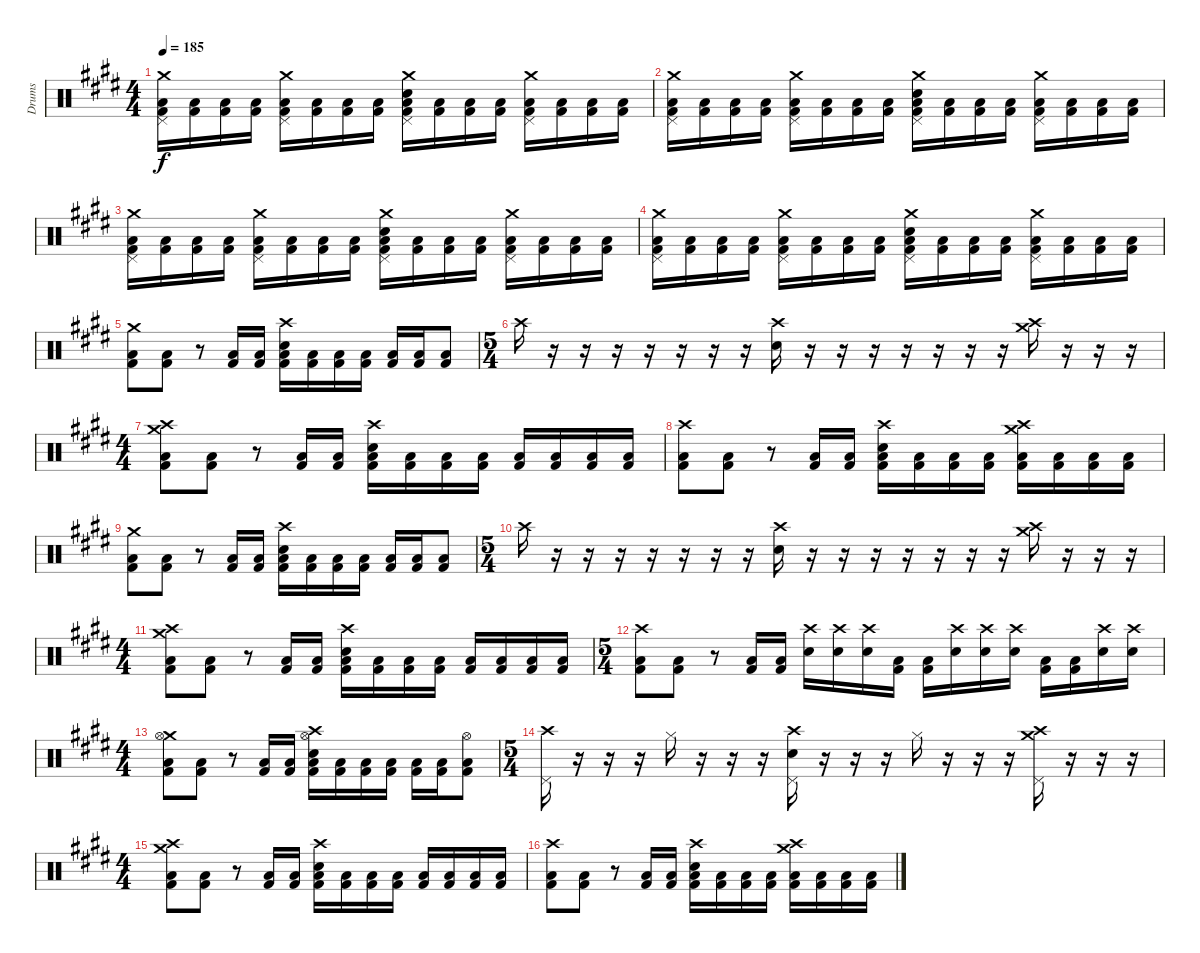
\track ("Drums" "Drums") {instrument percussion}
\staff {score}
\articulation defaults
\ts (4 4)
\tempo 185
\clef neutral
\ks e
("Crash medium (hit)" "Pedal Hi-Hat (hit)" "Low Floor Tom (hit)" "Kick (hit) 2").16{dy f} ("Low Floor Tom (hit)" "Kick (hit) 2").16 ("Low Floor Tom (hit)" "Kick (hit) 2").16 ("Low Floor Tom (hit)" "Kick (hit) 2").16 ("Crash medium (hit)" "Pedal Hi-Hat (hit)" "Low Floor Tom (hit)" "Kick (hit) 2").16 ("Low Floor Tom (hit)" "Kick (hit) 2").16 ("Low Floor Tom (hit)" "Kick (hit) 2").16 ("Low Floor Tom (hit)" "Kick (hit) 2").16 ("Crash medium (hit)" "Electric Snare (hit)" "Pedal Hi-Hat (hit)" "Low Floor Tom (hit)" "Kick (hit) 2").16 ("Low Floor Tom (hit)" "Kick (hit) 2").16 ("Low Floor Tom (hit)" "Kick (hit) 2").16 ("Low Floor Tom (hit)" "Kick (hit) 2").16 ("Crash medium (hit)" "Pedal Hi-Hat (hit)" "Low Floor Tom (hit)" "Kick (hit) 2").16 ("Low Floor Tom (hit)" "Kick (hit) 2").16 ("Low Floor Tom (hit)" "Kick (hit) 2").16 ("Low Floor Tom (hit)" "Kick (hit) 2").16 |
("Crash medium (hit)" "Pedal Hi-Hat (hit)" "Low Floor Tom (hit)" "Kick (hit) 2").16 ("Low Floor Tom (hit)" "Kick (hit) 2").16 ("Low Floor Tom (hit)" "Kick (hit) 2").16 ("Low Floor Tom (hit)" "Kick (hit) 2").16 ("Crash medium (hit)" "Pedal Hi-Hat (hit)" "Low Floor Tom (hit)" "Kick (hit) 2").16 ("Low Floor Tom (hit)" "Kick (hit) 2").16 ("Low Floor Tom (hit)" "Kick (hit) 2").16 ("Low Floor Tom (hit)" "Kick (hit) 2").16 ("Crash medium (hit)" "Electric Snare (hit)" "Pedal Hi-Hat (hit)" "Low Floor Tom (hit)" "Kick (hit) 2").16 ("Low Floor Tom (hit)" "Kick (hit) 2").16 ("Low Floor Tom (hit)" "Kick (hit) 2").16 ("Low Floor Tom (hit)" "Kick (hit) 2").16 ("Crash medium (hit)" "Pedal Hi-Hat (hit)" "Low Floor Tom (hit)" "Kick (hit) 2").16 ("Low Floor Tom (hit)" "Kick (hit) 2").16 ("Low Floor Tom (hit)" "Kick (hit) 2").16 ("Low Floor Tom (hit)" "Kick (hit) 2").16 |
("Crash medium (hit)" "Pedal Hi-Hat (hit)" "Low Floor Tom (hit)" "Kick (hit) 2").16 ("Low Floor Tom (hit)" "Kick (hit) 2").16 ("Low Floor Tom (hit)" "Kick (hit) 2").16 ("Low Floor Tom (hit)" "Kick (hit) 2").16 ("Crash medium (hit)" "Pedal Hi-Hat (hit)" "Low Floor Tom (hit)" "Kick (hit) 2").16 ("Low Floor Tom (hit)" "Kick (hit) 2").16 ("Low Floor Tom (hit)" "Kick (hit) 2").16 ("Low Floor Tom (hit)" "Kick (hit) 2").16 ("Crash medium (hit)" "Electric Snare (hit)" "Pedal Hi-Hat (hit)" "Low Floor Tom (hit)" "Kick (hit) 2").16 ("Low Floor Tom (hit)" "Kick (hit) 2").16 ("Low Floor Tom (hit)" "Kick (hit) 2").16 ("Low Floor Tom (hit)" "Kick (hit) 2").16 ("Crash medium (hit)" "Pedal Hi-Hat (hit)" "Low Floor Tom (hit)" "Kick (hit) 2").16 ("Low Floor Tom (hit)" "Kick (hit) 2").16 ("Low Floor Tom (hit)" "Kick (hit) 2").16 ("Low Floor Tom (hit)" "Kick (hit) 2").16 |
("Crash medium (hit)" "Pedal Hi-Hat (hit)" "Low Floor Tom (hit)" "Kick (hit) 2").16 ("Low Floor Tom (hit)" "Kick (hit) 2").16 ("Low Floor Tom (hit)" "Kick (hit) 2").16 ("Low Floor Tom (hit)" "Kick (hit) 2").16 ("Crash medium (hit)" "Pedal Hi-Hat (hit)" "Low Floor Tom (hit)" "Kick (hit) 2").16 ("Low Floor Tom (hit)" "Kick (hit) 2").16 ("Low Floor Tom (hit)" "Kick (hit) 2").16 ("Low Floor Tom (hit)" "Kick (hit) 2").16 ("Crash medium (hit)" "Electric Snare (hit)" "Pedal Hi-Hat (hit)" "Low Floor Tom (hit)" "Kick (hit) 2").16 ("Low Floor Tom (hit)" "Kick (hit) 2").16 ("Low Floor Tom (hit)" "Kick (hit) 2").16 ("Low Floor Tom (hit)" "Kick (hit) 2").16 ("Crash medium (hit)" "Pedal Hi-Hat (hit)" "Low Floor Tom (hit)" "Kick (hit) 2").16 ("Low Floor Tom (hit)" "Kick (hit) 2").16 ("Low Floor Tom (hit)" "Kick (hit) 2").16 ("Low Floor Tom (hit)" "Kick (hit) 2").16 |
("Crash medium (hit)" "Low Floor Tom (hit)" "Kick (hit) 2").8 ("Low Floor Tom (hit)" "Kick (hit) 2").8 r.8 ("Low Floor Tom (hit)" "Kick (hit) 2").16 ("Low Floor Tom (hit)" "Kick (hit) 2").16 ("Crash high (hit)" "Electric Snare (hit)" "Low Floor Tom (hit)" "Kick (hit) 2").16 ("Low Floor Tom (hit)" "Kick (hit) 2").16 ("Low Floor Tom (hit)" "Kick (hit) 2").16 ("Low Floor Tom (hit)" "Kick (hit) 2").16 ("Low Floor Tom (hit)" "Kick (hit) 2").16 ("Low Floor Tom (hit)" "Kick (hit) 2").16 ("Low Floor Tom (hit)" "Kick (hit) 2").8 |
\ts (5 4)
"Crash high (hit)".16 r.16 r.16 r.16 r.16 r.16 r.16 r.16 ("Crash high (hit)" "Electric Snare (hit)").16 r.16 r.16 r.16 r.16 r.16 r.16 r.16 ("Crash high (hit)" "Crash medium (hit)").16 r.16 r.16 r.16 |
\ts (4 4)
("Crash medium (hit)" "Crash high (hit)" "Low Floor Tom (hit)" "Kick (hit) 2").8 ("Low Floor Tom (hit)" "Kick (hit) 2").8 r.8 ("Low Floor Tom (hit)" "Kick (hit) 2").16 ("Low Floor Tom (hit)" "Kick (hit) 2").16 ("Crash high (hit)" "Electric Snare (hit)" "Low Floor Tom (hit)" "Kick (hit) 2").16 ("Low Floor Tom (hit)" "Kick (hit) 2").16 ("Low Floor Tom (hit)" "Kick (hit) 2").16 ("Low Floor Tom (hit)" "Kick (hit) 2").16 ("Low Floor Tom (hit)" "Kick (hit) 2").16 ("Low Floor Tom (hit)" "Kick (hit) 2").16 ("Low Floor Tom (hit)" "Kick (hit) 2").16 ("Low Floor Tom (hit)" "Kick (hit) 2").16 |
("Crash high (hit)" "Low Floor Tom (hit)" "Kick (hit) 2").8 ("Low Floor Tom (hit)" "Kick (hit) 2").8 r.8 ("Low Floor Tom (hit)" "Kick (hit) 2").16 ("Low Floor Tom (hit)" "Kick (hit) 2").16 ("Electric Snare (hit)" "Crash high (hit)" "Low Floor Tom (hit)" "Kick (hit) 2").16 ("Low Floor Tom (hit)" "Kick (hit) 2").16 ("Low Floor Tom (hit)" "Kick (hit) 2").16 ("Low Floor Tom (hit)" "Kick (hit) 2").16 ("Crash medium (hit)" "Crash high (hit)" "Low Floor Tom (hit)" "Kick (hit) 2").16 ("Low Floor Tom (hit)" "Kick (hit) 2").16 ("Low Floor Tom (hit)" "Kick (hit) 2").16 ("Low Floor Tom (hit)" "Kick (hit) 2").16 |
("Crash medium (hit)" "Low Floor Tom (hit)" "Kick (hit) 2").8 ("Low Floor Tom (hit)" "Kick (hit) 2").8 r.8 ("Low Floor Tom (hit)" "Kick (hit) 2").16 ("Low Floor Tom (hit)" "Kick (hit) 2").16 ("Crash high (hit)" "Electric Snare (hit)" "Low Floor Tom (hit)" "Kick (hit) 2").16 ("Low Floor Tom (hit)" "Kick (hit) 2").16 ("Low Floor Tom (hit)" "Kick (hit) 2").16 ("Low Floor Tom (hit)" "Kick (hit) 2").16 ("Low Floor Tom (hit)" "Kick (hit) 2").16 ("Low Floor Tom (hit)" "Kick (hit) 2").16 ("Low Floor Tom (hit)" "Kick (hit) 2").8 |
\ts (5 4)
"Crash high (hit)".16 r.16 r.16 r.16 r.16 r.16 r.16 r.16 ("Crash high (hit)" "Electric Snare (hit)").16 r.16 r.16 r.16 r.16 r.16 r.16 r.16 ("Crash high (hit)" "Crash medium (hit)").16 r.16 r.16 r.16 |
\ts (4 4)
("Crash medium (hit)" "Crash high (hit)" "Low Floor Tom (hit)" "Kick (hit) 2").8 ("Low Floor Tom (hit)" "Kick (hit) 2").8 r.8 ("Low Floor Tom (hit)" "Kick (hit) 2").16 ("Low Floor Tom (hit)" "Kick (hit) 2").16 ("Crash high (hit)" "Electric Snare (hit)" "Low Floor Tom (hit)" "Kick (hit) 2").16 ("Low Floor Tom (hit)" "Kick (hit) 2").16 ("Low Floor Tom (hit)" "Kick (hit) 2").16 ("Low Floor Tom (hit)" "Kick (hit) 2").16 ("Low Floor Tom (hit)" "Kick (hit) 2").16 ("Low Floor Tom (hit)" "Kick (hit) 2").16 ("Low Floor Tom (hit)" "Kick (hit) 2").16 ("Low Floor Tom (hit)" "Kick (hit) 2").16 |
\ts (5 4)
("Crash high (hit)" "Low Floor Tom (hit)" "Kick (hit) 2").8 ("Low Floor Tom (hit)" "Kick (hit) 2").8 r.8 ("Low Floor Tom (hit)" "Kick (hit) 2").16 ("Low Floor Tom (hit)" "Kick (hit) 2").16 ("Crash high (hit)" "Electric Snare (hit)").16 ("Crash high (hit)" "Electric Snare (hit)").16 ("Crash high (hit)" "Electric Snare (hit)").16 ("Low Floor Tom (hit)" "Kick (hit) 2").16 ("Low Floor Tom (hit)" "Kick (hit) 2").16 ("Crash high (hit)" "Electric Snare (hit)").16 ("Crash high (hit)" "Electric Snare (hit)").16 ("Crash high (hit)" "Electric Snare (hit)").16 ("Low Floor Tom (hit)" "Kick (hit) 2").16 ("Low Floor Tom (hit)" "Kick (hit) 2").16 ("Crash high (hit)" "Electric Snare (hit)").16 ("Crash high (hit)" "Electric Snare (hit)").16 |
\ts (4 4)
("Crash medium (hit)" "Hi-Hat (open)" "Low Floor Tom (hit)" "Kick (hit) 2").8 ("Low Floor Tom (hit)" "Kick (hit) 2").8 r.8 ("Low Floor Tom (hit)" "Kick (hit) 2").16 ("Low Floor Tom (hit)" "Kick (hit) 2").16 ("Crash high (hit)" "Electric Snare (hit)" "Hi-Hat (open)" "Low Floor Tom (hit)" "Kick (hit) 2").16 ("Low Floor Tom (hit)" "Kick (hit) 2").16 ("Low Floor Tom (hit)" "Kick (hit) 2").16 ("Low Floor Tom (hit)" "Kick (hit) 2").16 ("Low Floor Tom (hit)" "Kick (hit) 2").16 ("Low Floor Tom (hit)" "Kick (hit) 2").16 ("Hi-Hat (open)" "Low Floor Tom (hit)" "Kick (hit) 2").8 |
\ts (5 4)
("Crash high (hit)" "Pedal Hi-Hat (hit)").16 r.16 r.16 r.16 "Hi-Hat (closed)".16 r.16 r.16 r.16 ("Crash high (hit)" "Electric Snare (hit)" "Pedal Hi-Hat (hit)").16 r.16 r.16 r.16 "Hi-Hat (closed)".16 r.16 r.16 r.16 ("Crash high (hit)" "Crash medium (hit)" "Pedal Hi-Hat (hit)").16 r.16 r.16 r.16 |
\ts (4 4)
("Crash medium (hit)" "Crash high (hit)" "Low Floor Tom (hit)" "Kick (hit) 2").8 ("Low Floor Tom (hit)" "Kick (hit) 2").8 r.8 ("Low Floor Tom (hit)" "Kick (hit) 2").16 ("Low Floor Tom (hit)" "Kick (hit) 2").16 ("Crash high (hit)" "Electric Snare (hit)" "Low Floor Tom (hit)" "Kick (hit) 2").16 ("Low Floor Tom (hit)" "Kick (hit) 2").16 ("Low Floor Tom (hit)" "Kick (hit) 2").16 ("Low Floor Tom (hit)" "Kick (hit) 2").16 ("Low Floor Tom (hit)" "Kick (hit) 2").16 ("Low Floor Tom (hit)" "Kick (hit) 2").16 ("Low Floor Tom (hit)" "Kick (hit) 2").16 ("Low Floor Tom (hit)" "Kick (hit) 2").16 |
("Crash high (hit)" "Low Floor Tom (hit)" "Kick (hit) 2").8 ("Low Floor Tom (hit)" "Kick (hit) 2").8 r.8 ("Low Floor Tom (hit)" "Kick (hit) 2").16 ("Low Floor Tom (hit)" "Kick (hit) 2").16 ("Electric Snare (hit)" "Crash high (hit)" "Low Floor Tom (hit)" "Kick (hit) 2").16 ("Low Floor Tom (hit)" "Kick (hit) 2").16 ("Low Floor Tom (hit)" "Kick (hit) 2").16 ("Low Floor Tom (hit)" "Kick (hit) 2").16 ("Crash medium (hit)" "Crash high (hit)" "Low Floor Tom (hit)" "Kick (hit) 2").16 ("Low Floor Tom (hit)" "Kick (hit) 2").16 ("Low Floor Tom (hit)" "Kick (hit) 2").16 ("Low Floor Tom (hit)" "Kick (hit) 2").16
